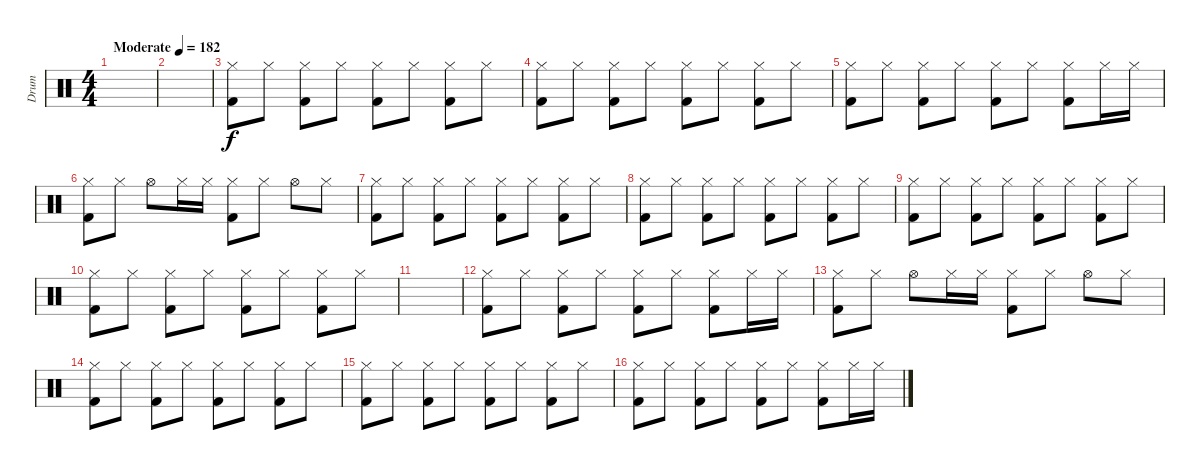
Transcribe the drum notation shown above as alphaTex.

\track ("Drum" "Drum") {instrument percussion}
\staff {score}
\articulation defaults
\ts (4 4)
\tempo (182 "Moderate")
\clef neutral
\ks c
|
|
("Hi-Hat (closed)" "Kick (hit) 2").8 "Hi-Hat (closed)".8 ("Hi-Hat (closed)" "Kick (hit) 2").8 "Hi-Hat (closed)".8 ("Hi-Hat (closed)" "Kick (hit) 2").8 "Hi-Hat (closed)".8 ("Hi-Hat (closed)" "Kick (hit) 2").8 "Hi-Hat (closed)".8 |
("Hi-Hat (closed)" "Kick (hit) 2").8 "Hi-Hat (closed)".8 ("Hi-Hat (closed)" "Kick (hit) 2").8 "Hi-Hat (closed)".8 ("Hi-Hat (closed)" "Kick (hit) 2").8 "Hi-Hat (closed)".8 ("Hi-Hat (closed)" "Kick (hit) 2").8 "Hi-Hat (closed)".8 |
("Hi-Hat (closed)" "Kick (hit) 2").8 "Hi-Hat (closed)".8 ("Hi-Hat (closed)" "Kick (hit) 2").8 "Hi-Hat (closed)".8 ("Hi-Hat (closed)" "Kick (hit) 2").8 "Hi-Hat (closed)".8 ("Hi-Hat (closed)" "Kick (hit) 2").8 "Hi-Hat (closed)".16 "Hi-Hat (closed)".16 |
("Hi-Hat (closed)" "Kick (hit) 2").8 "Hi-Hat (closed)".8 "Hi-Hat (open)".8 "Hi-Hat (closed)".16 "Hi-Hat (closed)".16 ("Hi-Hat (closed)" "Kick (hit) 2").8 "Hi-Hat (closed)".8 "Hi-Hat (open)".8 "Hi-Hat (closed)".8 |
("Hi-Hat (closed)" "Kick (hit) 2").8 "Hi-Hat (closed)".8 ("Hi-Hat (closed)" "Kick (hit) 2").8 "Hi-Hat (closed)".8 ("Hi-Hat (closed)" "Kick (hit) 2").8 "Hi-Hat (closed)".8 ("Hi-Hat (closed)" "Kick (hit) 2").8 "Hi-Hat (closed)".8 |
("Hi-Hat (closed)" "Kick (hit) 2").8 "Hi-Hat (closed)".8 ("Hi-Hat (closed)" "Kick (hit) 2").8 "Hi-Hat (closed)".8 ("Hi-Hat (closed)" "Kick (hit) 2").8 "Hi-Hat (closed)".8 ("Hi-Hat (closed)" "Kick (hit) 2").8 "Hi-Hat (closed)".8 |
("Hi-Hat (closed)" "Kick (hit) 2").8 "Hi-Hat (closed)".8 ("Hi-Hat (closed)" "Kick (hit) 2").8 "Hi-Hat (closed)".8 ("Hi-Hat (closed)" "Kick (hit) 2").8 "Hi-Hat (closed)".8 ("Hi-Hat (closed)" "Kick (hit) 2").8 "Hi-Hat (closed)".8 |
("Hi-Hat (closed)" "Kick (hit) 2").8 "Hi-Hat (closed)".8 ("Hi-Hat (closed)" "Kick (hit) 2").8 "Hi-Hat (closed)".8 ("Hi-Hat (closed)" "Kick (hit) 2").8 "Hi-Hat (closed)".8 ("Hi-Hat (closed)" "Kick (hit) 2").8 "Hi-Hat (closed)".8 |
|
("Hi-Hat (closed)" "Kick (hit) 2").8 "Hi-Hat (closed)".8 ("Hi-Hat (closed)" "Kick (hit) 2").8 "Hi-Hat (closed)".8 ("Hi-Hat (closed)" "Kick (hit) 2").8 "Hi-Hat (closed)".8 ("Hi-Hat (closed)" "Kick (hit) 2").8 "Hi-Hat (closed)".16 "Hi-Hat (closed)".16 |
("Hi-Hat (closed)" "Kick (hit) 2").8 "Hi-Hat (closed)".8 "Hi-Hat (open)".8 "Hi-Hat (closed)".16 "Hi-Hat (closed)".16 ("Hi-Hat (closed)" "Kick (hit) 2").8 "Hi-Hat (closed)".8 "Hi-Hat (open)".8 "Hi-Hat (closed)".8 |
("Hi-Hat (closed)" "Kick (hit) 2").8 "Hi-Hat (closed)".8 ("Hi-Hat (closed)" "Kick (hit) 2").8 "Hi-Hat (closed)".8 ("Hi-Hat (closed)" "Kick (hit) 2").8 "Hi-Hat (closed)".8 ("Hi-Hat (closed)" "Kick (hit) 2").8 "Hi-Hat (closed)".8 |
("Hi-Hat (closed)" "Kick (hit) 2").8 "Hi-Hat (closed)".8 ("Hi-Hat (closed)" "Kick (hit) 2").8 "Hi-Hat (closed)".8 ("Hi-Hat (closed)" "Kick (hit) 2").8 "Hi-Hat (closed)".8 ("Hi-Hat (closed)" "Kick (hit) 2").8 "Hi-Hat (closed)".8 |
("Hi-Hat (closed)" "Kick (hit) 2").8 "Hi-Hat (closed)".8 ("Hi-Hat (closed)" "Kick (hit) 2").8 "Hi-Hat (closed)".8 ("Hi-Hat (closed)" "Kick (hit) 2").8 "Hi-Hat (closed)".8 ("Hi-Hat (closed)" "Kick (hit) 2").8 "Hi-Hat (closed)".16 "Hi-Hat (closed)".16
